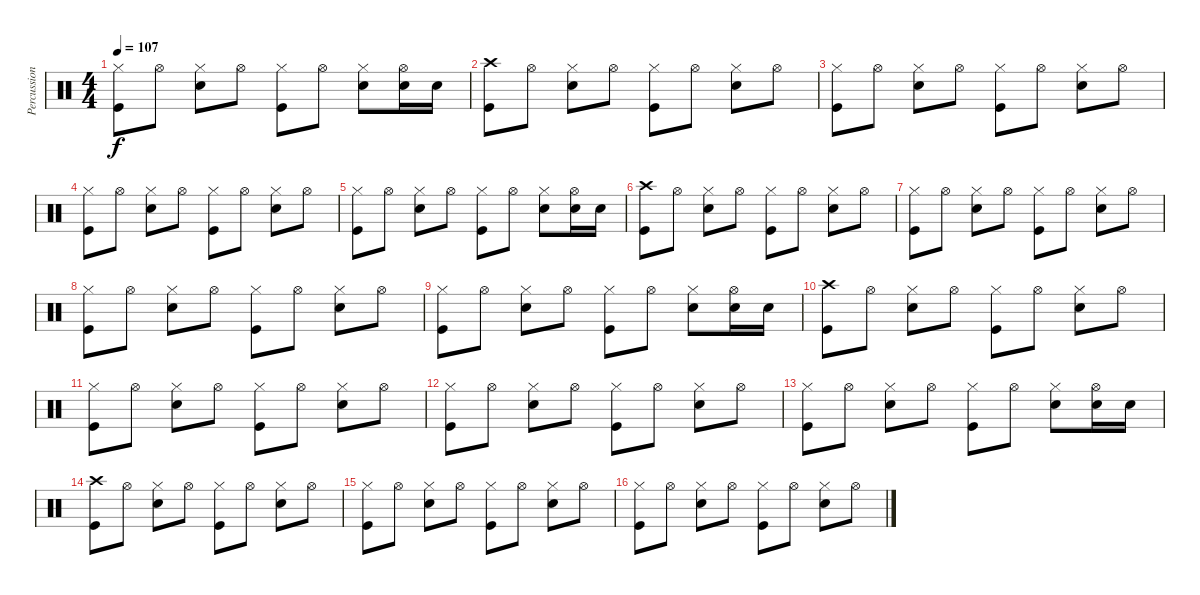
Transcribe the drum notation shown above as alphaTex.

\track ("Percussion" "Percussion") {instrument percussion}
\staff {score}
\articulation defaults
\ts (4 4)
\tempo 107
\clef neutral
\ks c
("Hi-Hat (closed)" "Kick (hit)").8{dy f} "Hi-Hat (open)".8 ("Hi-Hat (closed)" "Snare (hit) 2").8 "Hi-Hat (open)".8 ("Hi-Hat (closed)" "Kick (hit)").8 "Hi-Hat (open)".8 ("Hi-Hat (closed)" "Snare (hit) 2").8 ("Hi-Hat (open)" "Snare (hit) 2").16 "Snare (hit) 2".16 |
("Crash high (hit)" "Kick (hit)").8 "Hi-Hat (open)".8 ("Hi-Hat (closed)" "Snare (hit) 2").8 "Hi-Hat (open)".8 ("Hi-Hat (closed)" "Kick (hit)").8 "Hi-Hat (open)".8 ("Hi-Hat (closed)" "Snare (hit) 2").8 "Hi-Hat (open)".8 |
("Hi-Hat (closed)" "Kick (hit)").8 "Hi-Hat (open)".8 ("Hi-Hat (closed)" "Snare (hit) 2").8 "Hi-Hat (open)".8 ("Hi-Hat (closed)" "Kick (hit)").8 "Hi-Hat (open)".8 ("Hi-Hat (closed)" "Snare (hit) 2").8 "Hi-Hat (open)".8 |
("Hi-Hat (closed)" "Kick (hit)").8 "Hi-Hat (open)".8 ("Hi-Hat (closed)" "Snare (hit) 2").8 "Hi-Hat (open)".8 ("Hi-Hat (closed)" "Kick (hit)").8 "Hi-Hat (open)".8 ("Hi-Hat (closed)" "Snare (hit) 2").8 "Hi-Hat (open)".8 |
("Hi-Hat (closed)" "Kick (hit)").8 "Hi-Hat (open)".8 ("Hi-Hat (closed)" "Snare (hit) 2").8 "Hi-Hat (open)".8 ("Hi-Hat (closed)" "Kick (hit)").8 "Hi-Hat (open)".8 ("Hi-Hat (closed)" "Snare (hit) 2").8 ("Hi-Hat (open)" "Snare (hit) 2").16 "Snare (hit) 2".16 |
("Crash high (hit)" "Kick (hit)").8 "Hi-Hat (open)".8 ("Hi-Hat (closed)" "Snare (hit) 2").8 "Hi-Hat (open)".8 ("Hi-Hat (closed)" "Kick (hit)").8 "Hi-Hat (open)".8 ("Hi-Hat (closed)" "Snare (hit) 2").8 "Hi-Hat (open)".8 |
("Hi-Hat (closed)" "Kick (hit)").8 "Hi-Hat (open)".8 ("Hi-Hat (closed)" "Snare (hit) 2").8 "Hi-Hat (open)".8 ("Hi-Hat (closed)" "Kick (hit)").8 "Hi-Hat (open)".8 ("Hi-Hat (closed)" "Snare (hit) 2").8 "Hi-Hat (open)".8 |
("Hi-Hat (closed)" "Kick (hit)").8 "Hi-Hat (open)".8 ("Hi-Hat (closed)" "Snare (hit) 2").8 "Hi-Hat (open)".8 ("Hi-Hat (closed)" "Kick (hit)").8 "Hi-Hat (open)".8 ("Hi-Hat (closed)" "Snare (hit) 2").8 "Hi-Hat (open)".8 |
("Hi-Hat (closed)" "Kick (hit)").8 "Hi-Hat (open)".8 ("Hi-Hat (closed)" "Snare (hit) 2").8 "Hi-Hat (open)".8 ("Hi-Hat (closed)" "Kick (hit)").8 "Hi-Hat (open)".8 ("Hi-Hat (closed)" "Snare (hit) 2").8 ("Hi-Hat (open)" "Snare (hit) 2").16 "Snare (hit) 2".16 |
("Crash high (hit)" "Kick (hit)").8 "Hi-Hat (open)".8 ("Hi-Hat (closed)" "Snare (hit) 2").8 "Hi-Hat (open)".8 ("Hi-Hat (closed)" "Kick (hit)").8 "Hi-Hat (open)".8 ("Hi-Hat (closed)" "Snare (hit) 2").8 "Hi-Hat (open)".8 |
("Hi-Hat (closed)" "Kick (hit)").8 "Hi-Hat (open)".8 ("Hi-Hat (closed)" "Snare (hit) 2").8 "Hi-Hat (open)".8 ("Hi-Hat (closed)" "Kick (hit)").8 "Hi-Hat (open)".8 ("Hi-Hat (closed)" "Snare (hit) 2").8 "Hi-Hat (open)".8 |
("Hi-Hat (closed)" "Kick (hit)").8 "Hi-Hat (open)".8 ("Hi-Hat (closed)" "Snare (hit) 2").8 "Hi-Hat (open)".8 ("Hi-Hat (closed)" "Kick (hit)").8 "Hi-Hat (open)".8 ("Hi-Hat (closed)" "Snare (hit) 2").8 "Hi-Hat (open)".8 |
("Hi-Hat (closed)" "Kick (hit)").8 "Hi-Hat (open)".8 ("Hi-Hat (closed)" "Snare (hit) 2").8 "Hi-Hat (open)".8 ("Hi-Hat (closed)" "Kick (hit)").8 "Hi-Hat (open)".8 ("Hi-Hat (closed)" "Snare (hit) 2").8 ("Hi-Hat (open)" "Snare (hit) 2").16 "Snare (hit) 2".16 |
("Crash high (hit)" "Kick (hit)").8 "Hi-Hat (open)".8 ("Hi-Hat (closed)" "Snare (hit) 2").8 "Hi-Hat (open)".8 ("Hi-Hat (closed)" "Kick (hit)").8 "Hi-Hat (open)".8 ("Hi-Hat (closed)" "Snare (hit) 2").8 "Hi-Hat (open)".8 |
("Hi-Hat (closed)" "Kick (hit)").8 "Hi-Hat (open)".8 ("Hi-Hat (closed)" "Snare (hit) 2").8 "Hi-Hat (open)".8 ("Hi-Hat (closed)" "Kick (hit)").8 "Hi-Hat (open)".8 ("Hi-Hat (closed)" "Snare (hit) 2").8 "Hi-Hat (open)".8 |
("Hi-Hat (closed)" "Kick (hit)").8 "Hi-Hat (open)".8 ("Hi-Hat (closed)" "Snare (hit) 2").8 "Hi-Hat (open)".8 ("Hi-Hat (closed)" "Kick (hit)").8 "Hi-Hat (open)".8 ("Hi-Hat (closed)" "Snare (hit) 2").8 "Hi-Hat (open)".8
